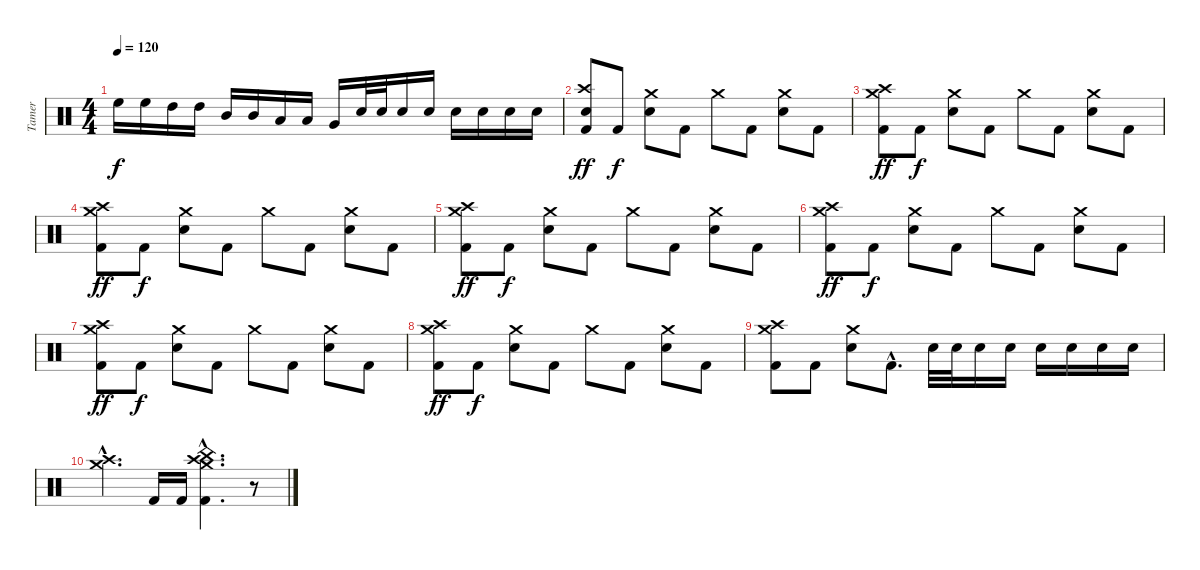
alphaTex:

\track ("Tamer" "Tamer") {instrument percussion}
\staff {score}
\articulation defaults
\ts (4 4)
\tempo 120
\clef neutral
\ks c "High Floor Tom (hit)".16{dy f} "High Floor Tom (hit)".16 "High Tom (hit)".16 "High Tom (hit)".16 "Mid Tom (hit)".16 "Mid Tom (hit)".16 "Low Tom (hit)".16 "Low Tom (hit)".16 "Very Low Tom (hit)".16 "Electric Snare (hit)".32 "Electric Snare (hit)".32 "Electric Snare (hit)".16 "Electric Snare (hit)".16 "Electric Snare (hit)".16 "Electric Snare (hit)".16 "Electric Snare (hit)".16 "Electric Snare (hit)".16
|
("Crash high (hit)" "Electric Snare (hit)" "Kick (hit) 2").8{dy ff} "Kick (hit) 2".8{dy f} ("Crash medium (hit)" "Electric Snare (hit)").8 "Kick (hit) 2".8 "Crash medium (hit)".8 "Kick (hit) 2".8 ("Crash medium (hit)" "Electric Snare (hit)").8 "Kick (hit) 2".8 |
("Crash high (hit)" "Crash medium (hit)" "Kick (hit) 2").8{dy ff} "Kick (hit) 2".8{dy f} ("Crash medium (hit)" "Electric Snare (hit)").8 "Kick (hit) 2".8 "Crash medium (hit)".8 "Kick (hit) 2".8 ("Crash medium (hit)" "Electric Snare (hit)").8 "Kick (hit) 2".8 |
("Crash high (hit)" "Crash medium (hit)" "Kick (hit) 2").8{dy ff} "Kick (hit) 2".8{dy f} ("Crash medium (hit)" "Electric Snare (hit)").8 "Kick (hit) 2".8 "Crash medium (hit)".8 "Kick (hit) 2".8 ("Crash medium (hit)" "Electric Snare (hit)").8 "Kick (hit) 2".8 |
("Crash high (hit)" "Crash medium (hit)" "Kick (hit) 2").8{dy ff} "Kick (hit) 2".8{dy f} ("Crash medium (hit)" "Electric Snare (hit)").8 "Kick (hit) 2".8 "Crash medium (hit)".8 "Kick (hit) 2".8 ("Crash medium (hit)" "Electric Snare (hit)").8 "Kick (hit) 2".8 |
("Crash high (hit)" "Crash medium (hit)" "Kick (hit) 2").8{dy ff} "Kick (hit) 2".8{dy f} ("Crash medium (hit)" "Electric Snare (hit)").8 "Kick (hit) 2".8 "Crash medium (hit)".8 "Kick (hit) 2".8 ("Crash medium (hit)" "Electric Snare (hit)").8 "Kick (hit) 2".8 |
("Crash high (hit)" "Crash medium (hit)" "Kick (hit) 2").8{dy ff} "Kick (hit) 2".8{dy f} ("Crash medium (hit)" "Electric Snare (hit)").8 "Kick (hit) 2".8 "Crash medium (hit)".8 "Kick (hit) 2".8 ("Crash medium (hit)" "Electric Snare (hit)").8 "Kick (hit) 2".8 |
("Crash high (hit)" "Crash medium (hit)" "Kick (hit) 2").8{dy ff} "Kick (hit) 2".8{dy f} ("Crash medium (hit)" "Electric Snare (hit)").8 "Kick (hit) 2".8 "Crash medium (hit)".8 "Kick (hit) 2".8 ("Crash medium (hit)" "Electric Snare (hit)").8 "Kick (hit) 2".8 |
("Crash high (hit)" "Crash medium (hit)" "Kick (hit) 2").8 "Kick (hit) 2".8 ("Crash medium (hit)" "Electric Snare (hit)").8 "Kick (hit) 2"{hac}.8{d} "Electric Snare (hit)".32 "Electric Snare (hit)".32 "Electric Snare (hit)".16 "Electric Snare (hit)".16 "Electric Snare (hit)".16 "Electric Snare (hit)".16 "Electric Snare (hit)".16 "Electric Snare (hit)".16 |
("Crash high (hit)"{hac} "Crash medium (hit)"{hac}).4{d} "Kick (hit) 2".16 "Kick (hit) 2".16 ("China (hit)"{hac} "Crash high (hit)"{hac} "Crash medium (hit)"{hac} "Kick (hit) 2"{hac}).4{d} r.8
